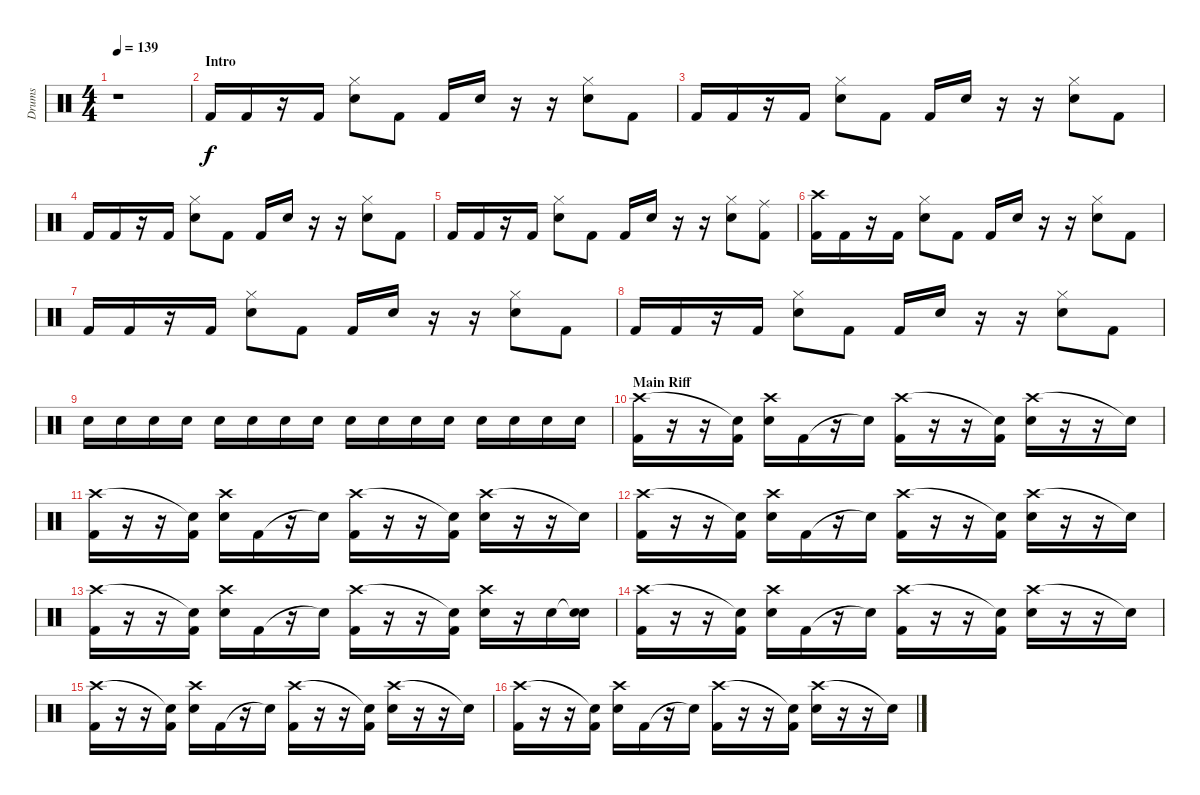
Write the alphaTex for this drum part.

\track ("Drums" "Drums") {instrument percussion}
\staff {score}
\articulation defaults
\ts (4 4)
\tempo 139
\clef neutral
\ks c
r.1{dy f} |
\section ("" "Intro")
"Kick (hit) 2".16 "Kick (hit) 2".16 r.16 "Kick (hit) 2".16 ("Hi-Hat (closed)" "Snare (hit) 2").8 "Kick (hit) 2".8 "Kick (hit) 2".16 "Snare (hit) 2".16 r.16 r.16 ("Hi-Hat (closed)" "Snare (hit) 2").8 "Kick (hit) 2".8 |
"Kick (hit) 2".16 "Kick (hit) 2".16 r.16 "Kick (hit) 2".16 ("Hi-Hat (closed)" "Snare (hit) 2").8 "Kick (hit) 2".8 "Kick (hit) 2".16 "Snare (hit) 2".16 r.16 r.16 ("Hi-Hat (closed)" "Snare (hit) 2").8 "Kick (hit) 2".8 |
"Kick (hit) 2".16 "Kick (hit) 2".16 r.16 "Kick (hit) 2".16 ("Hi-Hat (closed)" "Snare (hit) 2").8 "Kick (hit) 2".8 "Kick (hit) 2".16 "Snare (hit) 2".16 r.16 r.16 ("Hi-Hat (closed)" "Snare (hit) 2").8 "Kick (hit) 2".8 |
"Kick (hit) 2".16 "Kick (hit) 2".16 r.16 "Kick (hit) 2".16 ("Hi-Hat (closed)" "Snare (hit) 2").8 "Kick (hit) 2".8 "Kick (hit) 2".16 "Snare (hit) 2".16 r.16 r.16 ("Hi-Hat (closed)" "Snare (hit) 2").8 ("Ride (middle)" "Kick (hit) 2").8 |
("Crash high (hit)" "Kick (hit) 2").16 "Kick (hit) 2".16 r.16 "Kick (hit) 2".16 ("Hi-Hat (closed)" "Snare (hit) 2").8 "Kick (hit) 2".8 "Kick (hit) 2".16 "Snare (hit) 2".16 r.16 r.16 ("Hi-Hat (closed)" "Snare (hit) 2").8 "Kick (hit) 2".8 |
"Kick (hit) 2".16 "Kick (hit) 2".16 r.16 "Kick (hit) 2".16 ("Hi-Hat (closed)" "Snare (hit) 2").8 "Kick (hit) 2".8 "Kick (hit) 2".16 "Snare (hit) 2".16 r.16 r.16 ("Hi-Hat (closed)" "Snare (hit) 2").8 "Kick (hit) 2".8 |
"Kick (hit) 2".16 "Kick (hit) 2".16 r.16 "Kick (hit) 2".16 ("Hi-Hat (closed)" "Snare (hit) 2").8 "Kick (hit) 2".8 "Kick (hit) 2".16 "Snare (hit) 2".16 r.16 r.16 ("Hi-Hat (closed)" "Snare (hit) 2").8 "Kick (hit) 2".8 |
"Snare (hit) 2".16{volume 5} "Snare (hit) 2".16{volume 5} "Snare (hit) 2".16{volume 5} "Snare (hit) 2".16{volume 5} "Snare (hit) 2".16{volume 5} "Snare (hit) 2".16{volume 6} "Snare (hit) 2".16{volume 7} "Snare (hit) 2".16{volume 8} "Snare (hit) 2".16{volume 9} "Snare (hit) 2".16{volume 10} "Snare (hit) 2".16{volume 11} "Snare (hit) 2".16{volume 12} "Snare (hit) 2".16{volume 13} "Snare (hit) 2".16{volume 14} "Snare (hit) 2".16{volume 15} "Snare (hit) 2".16{volume 16} |
\section ("" "Main Riff")
("Crash high (hit)" "Kick (hit) 2").16 r.16 r.16 ("Snare (hit)"{t} "Kick (hit) 2").16 ("Crash high (hit)" "Snare (hit) 2").16 "Kick (hit) 2".16 r.16 "Snare (hit)"{t}.16 ("Crash high (hit)" "Kick (hit) 2").16 r.16 r.16 ("Snare (hit)"{t} "Kick (hit) 2").16 ("Crash high (hit)" "Snare (hit) 2").16 r.16 r.16 "Snare (hit)"{t}.16 |
("Crash high (hit)" "Kick (hit) 2").16 r.16 r.16 ("Snare (hit)"{t} "Kick (hit) 2").16 ("Crash high (hit)" "Snare (hit) 2").16 "Kick (hit) 2".16 r.16 "Snare (hit)"{t}.16 ("Crash high (hit)" "Kick (hit) 2").16 r.16 r.16 ("Snare (hit)"{t} "Kick (hit) 2").16 ("Crash high (hit)" "Snare (hit) 2").16 r.16 r.16 "Snare (hit)"{t}.16 |
("Crash high (hit)" "Kick (hit) 2").16 r.16 r.16 ("Snare (hit)"{t} "Kick (hit) 2").16 ("Crash high (hit)" "Snare (hit) 2").16 "Kick (hit) 2".16 r.16 "Snare (hit)"{t}.16 ("Crash high (hit)" "Kick (hit) 2").16 r.16 r.16 ("Snare (hit)"{t} "Kick (hit) 2").16 ("Crash high (hit)" "Snare (hit) 2").16 r.16 r.16 "Snare (hit)"{t}.16 |
("Crash high (hit)" "Kick (hit) 2").16 r.16 r.16 ("Snare (hit)"{t} "Kick (hit) 2").16 ("Crash high (hit)" "Snare (hit) 2").16 "Kick (hit) 2".16 r.16 "Snare (hit)"{t}.16 ("Crash high (hit)" "Kick (hit) 2").16 r.16 r.16 ("Snare (hit)"{t} "Kick (hit) 2").16 ("Crash high (hit)" "Snare (hit) 2").16 r.16 "Snare (hit) 2".16 ("Snare (hit)"{t} "Snare (hit) 2").16 |
("Crash high (hit)" "Kick (hit) 2").16 r.16 r.16 ("Snare (hit)"{t} "Kick (hit) 2").16 ("Crash high (hit)" "Snare (hit) 2").16 "Kick (hit) 2".16 r.16 "Snare (hit)"{t}.16 ("Crash high (hit)" "Kick (hit) 2").16 r.16 r.16 ("Snare (hit)"{t} "Kick (hit) 2").16 ("Crash high (hit)" "Snare (hit) 2").16 r.16 r.16 "Snare (hit)"{t}.16 |
("Crash high (hit)" "Kick (hit) 2").16 r.16 r.16 ("Snare (hit)"{t} "Kick (hit) 2").16 ("Crash high (hit)" "Snare (hit) 2").16 "Kick (hit) 2".16 r.16 "Snare (hit)"{t}.16 ("Crash high (hit)" "Kick (hit) 2").16 r.16 r.16 ("Snare (hit)"{t} "Kick (hit) 2").16 ("Crash high (hit)" "Snare (hit) 2").16 r.16 r.16 "Snare (hit)"{t}.16 |
("Crash high (hit)" "Kick (hit) 2").16 r.16 r.16 ("Snare (hit)"{t} "Kick (hit) 2").16 ("Crash high (hit)" "Snare (hit) 2").16 "Kick (hit) 2".16 r.16 "Snare (hit)"{t}.16 ("Crash high (hit)" "Kick (hit) 2").16 r.16 r.16 ("Snare (hit)"{t} "Kick (hit) 2").16 ("Crash high (hit)" "Snare (hit) 2").16 r.16 r.16 "Snare (hit)"{t}.16
